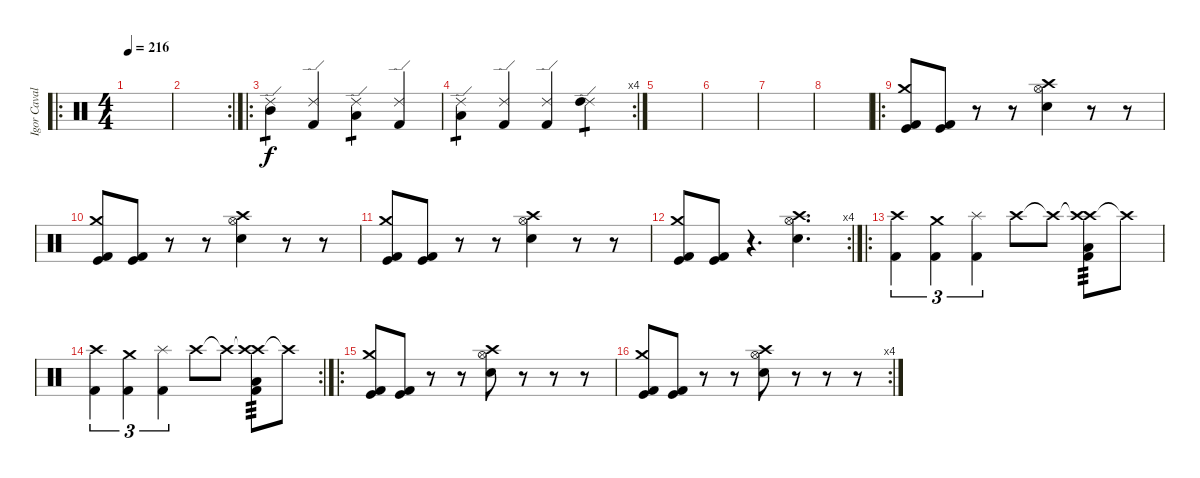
\track ("Igor Cavalera" "Igor Caval") {instrument percussion}
\staff {score}
\articulation defaults
\ro
\ts (4 4)
\tempo 216
\clef neutral
\ks c
|
\rc 2
|
\ro
("Ride (edge) 2" "Mid Tom (hit)").4{tp 1 dy f} ("Ride (edge) 2" "Kick (hit) 2").4 ("Ride (edge) 2" "Low Tom (hit)").4{tp 1} ("Ride (edge) 2" "Kick (hit) 2").4 |
\rc 4
("Ride (edge) 2" "Low Tom (hit)").4{tp 1} ("Ride (edge) 2" "Kick (hit) 2").4 ("Ride (edge) 2" "Kick (hit) 2").4 ("Ride (edge) 2" "High Tom (hit)").4{tp 1} |
|
|
|
|
\ro
("Crash medium (hit)" "Kick (hit) 2" "Kick (hit)").8 ("Kick (hit) 2" "Kick (hit)").8 r.8 r.8 ("Hi-Hat (open)" "Snare (hit) 2" "Crash high (hit)").4 r.8 r.8 |
("Crash medium (hit)" "Kick (hit) 2" "Kick (hit)").8 ("Kick (hit) 2" "Kick (hit)").8 r.8 r.8 ("Hi-Hat (open)" "Snare (hit) 2" "Crash high (hit)").4 r.8 r.8 |
("Crash medium (hit)" "Kick (hit) 2" "Kick (hit)").8 ("Kick (hit) 2" "Kick (hit)").8 r.8 r.8 ("Hi-Hat (open)" "Snare (hit) 2" "Crash high (hit)").4 r.8 r.8 |
\rc 4
("Crash medium (hit)" "Kick (hit) 2" "Kick (hit)").8 ("Kick (hit) 2" "Kick (hit)").8 r.4{d} ("Hi-Hat (open)" "Snare (hit) 2" "Crash high (hit)").4{d} |
\ro
("Crash high (hit)" "Kick (hit) 2").4{tu (3 2)} ("Crash medium (hit)" "Kick (hit) 2").4{tu (3 2)} ("Splash (hit)" "Kick (hit) 2").4{tu (3 2)} "Crash high (hit)".8 "Crash high (hit)"{t}.8 ("Crash high (hit)"{t} "Low Floor Tom (hit)" "Crash high (hit)" "Kick (hit) 2").8{tp 3} "Crash high (hit)"{t}.8 |
\rc 2
("Crash high (hit)" "Kick (hit) 2").4{tu (3 2)} ("Crash medium (hit)" "Kick (hit) 2").4{tu (3 2)} ("Splash (hit)" "Kick (hit) 2").4{tu (3 2)} "Crash high (hit)".8 "Crash high (hit)"{t}.8 ("Crash high (hit)"{t} "Low Floor Tom (hit)" "Crash high (hit)" "Kick (hit) 2").8{tp 3} "Crash high (hit)"{t}.8 |
\ro
("Crash medium (hit)" "Kick (hit) 2" "Kick (hit)").8 ("Kick (hit) 2" "Kick (hit)").8 r.8 r.8 ("Hi-Hat (open)" "Snare (hit) 2" "Crash high (hit)").8 r.8 r.8 r.8 |
\rc 4
("Crash medium (hit)" "Kick (hit) 2" "Kick (hit)").8 ("Kick (hit) 2" "Kick (hit)").8 r.8 r.8 ("Hi-Hat (open)" "Snare (hit) 2" "Crash high (hit)").8 r.8 r.8 r.8
